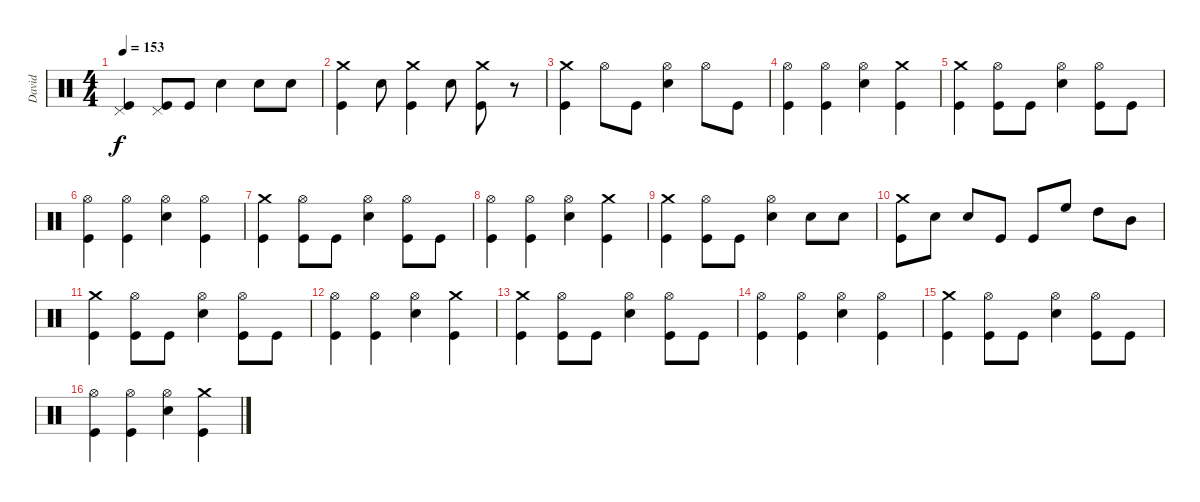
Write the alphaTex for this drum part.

\track ("David" "David") {instrument percussion}
\staff {score}
\articulation defaults
\ts (4 4)
\tempo 153
\clef neutral
\ks c
("Pedal Hi-Hat (hit)" "Kick (hit)").4{dy f} ("Pedal Hi-Hat (hit)" "Kick (hit)").8 "Kick (hit)".8 "Snare (hit) 2".4 "Snare (hit) 2".8 "Snare (hit) 2".8 |
("Crash medium (hit)" "Kick (hit)").4 "Snare (hit) 2".8 ("Crash medium (hit)" "Kick (hit)").4 "Snare (hit) 2".8 ("Crash medium (hit)" "Kick (hit)").8 r.8 |
("Crash medium (hit)" "Kick (hit)").4 "Hi-Hat (open)".8 "Kick (hit)".8 ("Hi-Hat (open)" "Snare (hit) 2").4 "Hi-Hat (open)".8 "Kick (hit)".8 |
("Hi-Hat (open)" "Kick (hit)").4 ("Hi-Hat (open)" "Kick (hit)").4 ("Hi-Hat (open)" "Snare (hit) 2").4 ("Crash medium (hit)" "Kick (hit)").4 |
("Crash medium (hit)" "Kick (hit)").4 ("Hi-Hat (open)" "Kick (hit)").8 "Kick (hit)".8 ("Hi-Hat (open)" "Snare (hit) 2").4 ("Hi-Hat (open)" "Kick (hit)").8 "Kick (hit)".8 |
("Hi-Hat (open)" "Kick (hit)").4 ("Hi-Hat (open)" "Kick (hit)").4 ("Hi-Hat (open)" "Snare (hit) 2").4 ("Hi-Hat (open)" "Kick (hit)").4 |
("Crash medium (hit)" "Kick (hit)").4 ("Hi-Hat (open)" "Kick (hit)").8 "Kick (hit)".8 ("Hi-Hat (open)" "Snare (hit) 2").4 ("Hi-Hat (open)" "Kick (hit)").8 "Kick (hit)".8 |
("Hi-Hat (open)" "Kick (hit)").4 ("Hi-Hat (open)" "Kick (hit)").4 ("Hi-Hat (open)" "Snare (hit) 2").4 ("Crash medium (hit)" "Kick (hit)").4 |
("Crash medium (hit)" "Kick (hit)").4 ("Hi-Hat (open)" "Kick (hit)").8 "Kick (hit)".8 ("Hi-Hat (open)" "Snare (hit) 2").4 "Snare (hit) 2".8 "Snare (hit) 2".8 |
("Crash medium (hit)" "Kick (hit)").8 "Snare (hit) 2".8 "Snare (hit) 2".8 "Kick (hit)".8 "Kick (hit)".8 "High Floor Tom (hit)".8 "High Tom (hit)".8 "Mid Tom (hit)".8 |
("Crash medium (hit)" "Kick (hit)").4 ("Hi-Hat (open)" "Kick (hit)").8 "Kick (hit)".8 ("Hi-Hat (open)" "Snare (hit) 2").4 ("Hi-Hat (open)" "Kick (hit)").8 "Kick (hit)".8 |
("Hi-Hat (open)" "Kick (hit)").4 ("Hi-Hat (open)" "Kick (hit)").4 ("Hi-Hat (open)" "Snare (hit) 2").4 ("Crash medium (hit)" "Kick (hit)").4 |
("Crash medium (hit)" "Kick (hit)").4 ("Hi-Hat (open)" "Kick (hit)").8 "Kick (hit)".8 ("Hi-Hat (open)" "Snare (hit) 2").4 ("Hi-Hat (open)" "Kick (hit)").8 "Kick (hit)".8 |
("Hi-Hat (open)" "Kick (hit)").4 ("Hi-Hat (open)" "Kick (hit)").4 ("Hi-Hat (open)" "Snare (hit) 2").4 ("Hi-Hat (open)" "Kick (hit)").4 |
("Crash medium (hit)" "Kick (hit)").4 ("Hi-Hat (open)" "Kick (hit)").8 "Kick (hit)".8 ("Hi-Hat (open)" "Snare (hit) 2").4 ("Hi-Hat (open)" "Kick (hit)").8 "Kick (hit)".8 |
("Hi-Hat (open)" "Kick (hit)").4 ("Hi-Hat (open)" "Kick (hit)").4 ("Hi-Hat (open)" "Snare (hit) 2").4 ("Crash medium (hit)" "Kick (hit)").4
